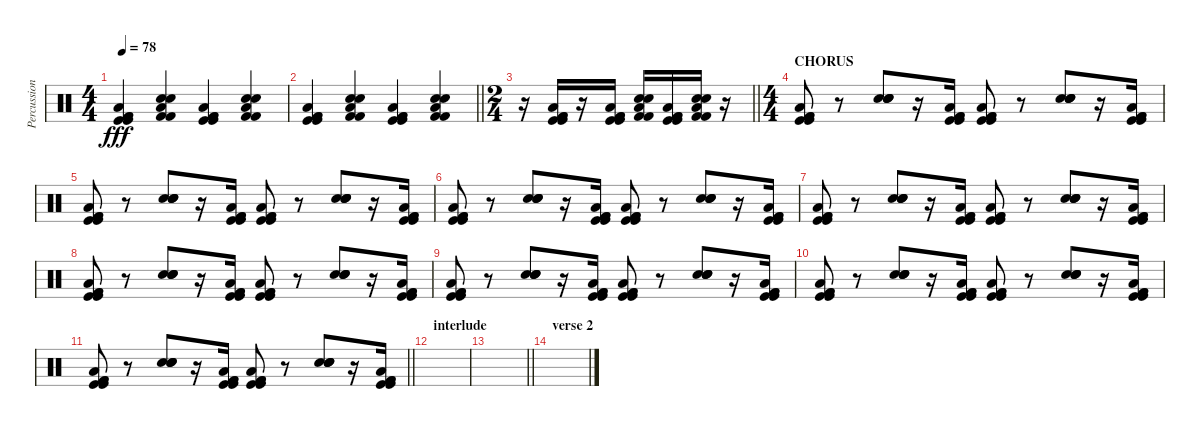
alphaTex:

\track ("Percussion" "Percussion") {instrument percussion}
\staff {score}
\articulation defaults
\ts (4 4)
\tempo 78
\clef neutral
\ks c
("Kick (hit) 2" "Kick (hit) 2" "Kick (hit)" "Kick (hit)" "Low Floor Tom (hit)").4{dy fff} ("Low Floor Tom (hit)" "Kick (hit) 2" "Kick (hit) 2" "Electric Snare (hit)" "Electric Snare (hit)").4 ("Kick (hit) 2" "Kick (hit) 2" "Kick (hit)" "Kick (hit)" "Low Floor Tom (hit)").4 ("Low Floor Tom (hit)" "Kick (hit) 2" "Kick (hit) 2" "Electric Snare (hit)" "Electric Snare (hit)").4 |
\barLineRight lightlight
("Kick (hit) 2" "Kick (hit) 2" "Kick (hit)" "Kick (hit)" "Low Floor Tom (hit)").4 ("Low Floor Tom (hit)" "Kick (hit) 2" "Kick (hit) 2" "Electric Snare (hit)" "Electric Snare (hit)").4 ("Kick (hit) 2" "Kick (hit) 2" "Kick (hit)" "Kick (hit)" "Low Floor Tom (hit)").4 ("Low Floor Tom (hit)" "Kick (hit) 2" "Kick (hit) 2" "Electric Snare (hit)" "Electric Snare (hit)").4 |
\ts (2 4)
\barLineRight lightlight
r.16 ("Kick (hit) 2" "Kick (hit) 2" "Kick (hit)" "Kick (hit)" "Low Floor Tom (hit)").16 r.16 ("Kick (hit) 2" "Kick (hit) 2" "Kick (hit)" "Kick (hit)" "Low Floor Tom (hit)").16 ("Low Floor Tom (hit)" "Kick (hit) 2" "Kick (hit) 2" "Electric Snare (hit)" "Electric Snare (hit)").16 ("Kick (hit) 2" "Kick (hit) 2" "Kick (hit)" "Kick (hit)" "Low Floor Tom (hit)").16 ("Low Floor Tom (hit)" "Kick (hit) 2" "Kick (hit) 2" "Electric Snare (hit)" "Electric Snare (hit)").16 r.16 |
\ts (4 4)
\section ("" "CHORUS")
("Kick (hit) 2" "Kick (hit) 2" "Kick (hit)" "Kick (hit)" "Low Floor Tom (hit)").8 r.8 ("Snare (hit) 2" "Snare (hit) 2" "Electric Snare (hit)" "Electric Snare (hit)").8 r.16 ("Kick (hit) 2" "Kick (hit) 2" "Kick (hit)" "Kick (hit)" "Low Floor Tom (hit)").16 ("Kick (hit) 2" "Kick (hit) 2" "Kick (hit)" "Kick (hit)" "Low Floor Tom (hit)").8 r.8 ("Snare (hit) 2" "Snare (hit) 2" "Electric Snare (hit)" "Electric Snare (hit)").8 r.16 ("Kick (hit) 2" "Kick (hit) 2" "Kick (hit)" "Kick (hit)" "Low Floor Tom (hit)").16 |
("Kick (hit) 2" "Kick (hit) 2" "Kick (hit)" "Kick (hit)" "Low Floor Tom (hit)").8 r.8 ("Snare (hit) 2" "Snare (hit) 2" "Electric Snare (hit)" "Electric Snare (hit)").8 r.16 ("Kick (hit) 2" "Kick (hit) 2" "Kick (hit)" "Kick (hit)" "Low Floor Tom (hit)").16 ("Kick (hit) 2" "Kick (hit) 2" "Kick (hit)" "Kick (hit)" "Low Floor Tom (hit)").8 r.8 ("Snare (hit) 2" "Snare (hit) 2" "Electric Snare (hit)" "Electric Snare (hit)").8 r.16 ("Kick (hit) 2" "Kick (hit) 2" "Kick (hit)" "Kick (hit)" "Low Floor Tom (hit)").16 |
("Kick (hit) 2" "Kick (hit) 2" "Kick (hit)" "Kick (hit)" "Low Floor Tom (hit)").8 r.8 ("Snare (hit) 2" "Snare (hit) 2" "Electric Snare (hit)" "Electric Snare (hit)").8 r.16 ("Kick (hit) 2" "Kick (hit) 2" "Kick (hit)" "Kick (hit)" "Low Floor Tom (hit)").16 ("Kick (hit) 2" "Kick (hit) 2" "Kick (hit)" "Kick (hit)" "Low Floor Tom (hit)").8 r.8 ("Snare (hit) 2" "Snare (hit) 2" "Electric Snare (hit)" "Electric Snare (hit)").8 r.16 ("Kick (hit) 2" "Kick (hit) 2" "Kick (hit)" "Kick (hit)" "Low Floor Tom (hit)").16 |
("Kick (hit) 2" "Kick (hit) 2" "Kick (hit)" "Kick (hit)" "Low Floor Tom (hit)").8 r.8 ("Snare (hit) 2" "Snare (hit) 2" "Electric Snare (hit)" "Electric Snare (hit)").8 r.16 ("Kick (hit) 2" "Kick (hit) 2" "Kick (hit)" "Kick (hit)" "Low Floor Tom (hit)").16 ("Kick (hit) 2" "Kick (hit) 2" "Kick (hit)" "Kick (hit)" "Low Floor Tom (hit)").8 r.8 ("Snare (hit) 2" "Snare (hit) 2" "Electric Snare (hit)" "Electric Snare (hit)").8 r.16 ("Kick (hit) 2" "Kick (hit) 2" "Kick (hit)" "Kick (hit)" "Low Floor Tom (hit)").16 |
("Kick (hit) 2" "Kick (hit) 2" "Kick (hit)" "Kick (hit)" "Low Floor Tom (hit)").8 r.8 ("Snare (hit) 2" "Snare (hit) 2" "Electric Snare (hit)" "Electric Snare (hit)").8 r.16 ("Kick (hit) 2" "Kick (hit) 2" "Kick (hit)" "Kick (hit)" "Low Floor Tom (hit)").16 ("Kick (hit) 2" "Kick (hit) 2" "Kick (hit)" "Kick (hit)" "Low Floor Tom (hit)").8 r.8 ("Snare (hit) 2" "Snare (hit) 2" "Electric Snare (hit)" "Electric Snare (hit)").8 r.16 ("Kick (hit) 2" "Kick (hit) 2" "Kick (hit)" "Kick (hit)" "Low Floor Tom (hit)").16 |
("Kick (hit) 2" "Kick (hit) 2" "Kick (hit)" "Kick (hit)" "Low Floor Tom (hit)").8 r.8 ("Snare (hit) 2" "Snare (hit) 2" "Electric Snare (hit)" "Electric Snare (hit)").8 r.16 ("Kick (hit) 2" "Kick (hit) 2" "Kick (hit)" "Kick (hit)" "Low Floor Tom (hit)").16 ("Kick (hit) 2" "Kick (hit) 2" "Kick (hit)" "Kick (hit)" "Low Floor Tom (hit)").8 r.8 ("Snare (hit) 2" "Snare (hit) 2" "Electric Snare (hit)" "Electric Snare (hit)").8 r.16 ("Kick (hit) 2" "Kick (hit) 2" "Kick (hit)" "Kick (hit)" "Low Floor Tom (hit)").16 |
("Kick (hit) 2" "Kick (hit) 2" "Kick (hit)" "Kick (hit)" "Low Floor Tom (hit)").8 r.8 ("Snare (hit) 2" "Snare (hit) 2" "Electric Snare (hit)" "Electric Snare (hit)").8 r.16 ("Kick (hit) 2" "Kick (hit) 2" "Kick (hit)" "Kick (hit)" "Low Floor Tom (hit)").16 ("Kick (hit) 2" "Kick (hit) 2" "Kick (hit)" "Kick (hit)" "Low Floor Tom (hit)").8 r.8 ("Snare (hit) 2" "Snare (hit) 2" "Electric Snare (hit)" "Electric Snare (hit)").8 r.16 ("Kick (hit) 2" "Kick (hit) 2" "Kick (hit)" "Kick (hit)" "Low Floor Tom (hit)").16 |
\barLineRight lightlight
("Kick (hit) 2" "Kick (hit) 2" "Kick (hit)" "Kick (hit)" "Low Floor Tom (hit)").8 r.8 ("Snare (hit) 2" "Snare (hit) 2" "Electric Snare (hit)" "Electric Snare (hit)").8 r.16 ("Kick (hit) 2" "Kick (hit) 2" "Kick (hit)" "Kick (hit)" "Low Floor Tom (hit)").16 ("Kick (hit) 2" "Kick (hit) 2" "Kick (hit)" "Kick (hit)" "Low Floor Tom (hit)").8 r.8 ("Snare (hit) 2" "Snare (hit) 2" "Electric Snare (hit)" "Electric Snare (hit)").8 r.16 ("Kick (hit) 2" "Kick (hit) 2" "Kick (hit)" "Kick (hit)" "Low Floor Tom (hit)").16 |
\section ("" "interlude")
|
\barLineRight lightlight
|
\section ("" "verse 2")
